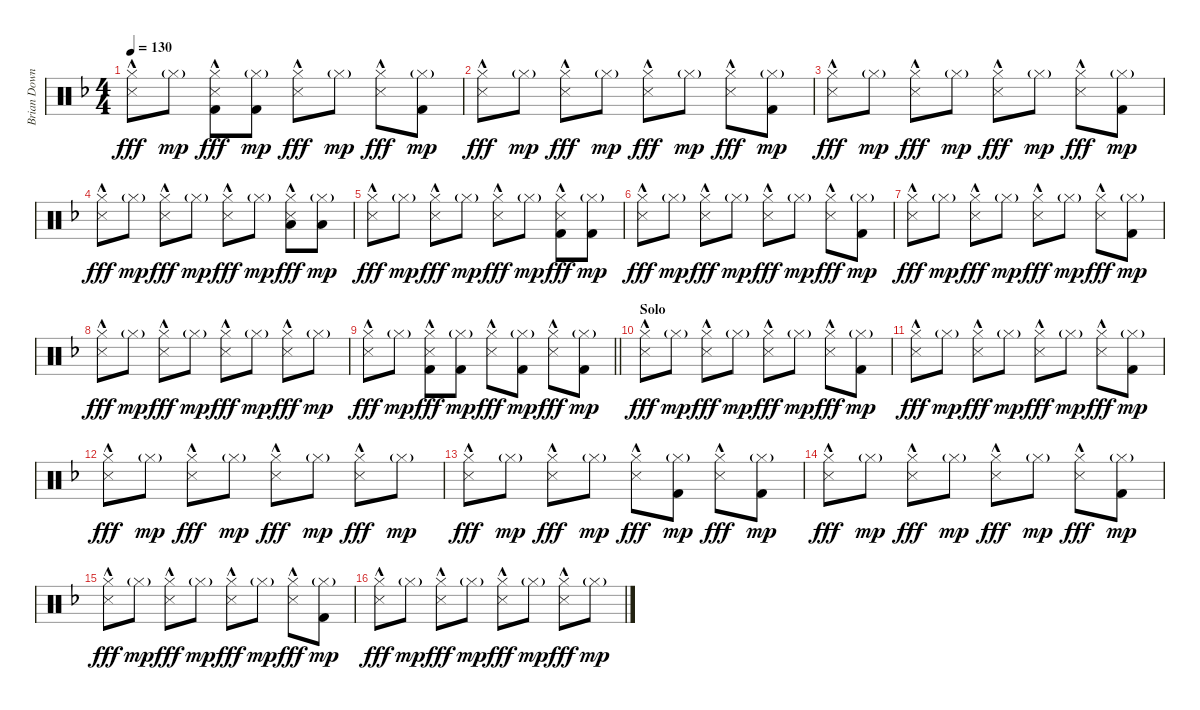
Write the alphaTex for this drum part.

\track ("Brian Downey" "Brian Down") {instrument percussion}
\staff {score}
\articulation defaults
\ts (4 4)
\tempo 130
\clef neutral
\ks dminor
("Hi-Hat (closed)" "Metronome (hit)"{hac}).8{dy fff} "Hi-Hat (closed)"{g}.8{dy mp} ("Hi-Hat (closed)" "Metronome (hit)"{hac} "Kick (hit) 2").8{dy fff} ("Hi-Hat (closed)"{g} "Kick (hit) 2").8{dy mp} ("Hi-Hat (closed)" "Metronome (hit)"{hac}).8{dy fff} "Hi-Hat (closed)"{g}.8{dy mp} ("Hi-Hat (closed)" "Metronome (hit)"{hac}).8{dy fff} ("Hi-Hat (closed)"{g} "Kick (hit) 2").8{dy mp} |
("Hi-Hat (closed)" "Metronome (hit)"{hac}).8{dy fff} "Hi-Hat (closed)"{g}.8{dy mp} ("Hi-Hat (closed)" "Metronome (hit)"{hac}).8{dy fff} "Hi-Hat (closed)"{g}.8{dy mp} ("Hi-Hat (closed)" "Metronome (hit)"{hac}).8{dy fff} "Hi-Hat (closed)"{g}.8{dy mp} ("Hi-Hat (closed)" "Metronome (hit)"{hac}).8{dy fff} ("Hi-Hat (closed)"{g} "Kick (hit) 2").8{dy mp} |
("Hi-Hat (closed)" "Metronome (hit)"{hac}).8{dy fff} "Hi-Hat (closed)"{g}.8{dy mp} ("Hi-Hat (closed)" "Metronome (hit)"{hac}).8{dy fff} "Hi-Hat (closed)"{g}.8{dy mp} ("Hi-Hat (closed)" "Metronome (hit)"{hac}).8{dy fff} "Hi-Hat (closed)"{g}.8{dy mp} ("Hi-Hat (closed)" "Metronome (hit)"{hac}).8{dy fff} ("Hi-Hat (closed)"{g} "Kick (hit) 2").8{dy mp} |
("Hi-Hat (closed)" "Metronome (hit)"{hac}).8{dy fff} "Hi-Hat (closed)"{g}.8{dy mp} ("Hi-Hat (closed)" "Metronome (hit)"{hac}).8{dy fff} "Hi-Hat (closed)"{g}.8{dy mp} ("Hi-Hat (closed)" "Metronome (hit)"{hac}).8{dy fff} "Hi-Hat (closed)"{g}.8{dy mp} ("Hi-Hat (closed)" "Low Tom (hit)" "Metronome (hit)"{hac}).8{dy fff} ("Hi-Hat (closed)"{g} "Low Tom (hit)").8{dy mp} |
("Hi-Hat (closed)" "Metronome (hit)"{hac}).8{dy fff} "Hi-Hat (closed)"{g}.8{dy mp} ("Hi-Hat (closed)" "Metronome (hit)"{hac}).8{dy fff} "Hi-Hat (closed)"{g}.8{dy mp} ("Hi-Hat (closed)" "Metronome (hit)"{hac}).8{dy fff} "Hi-Hat (closed)"{g}.8{dy mp} ("Hi-Hat (closed)" "Metronome (hit)"{hac} "Kick (hit) 2").8{dy fff} ("Hi-Hat (closed)"{g} "Kick (hit) 2").8{dy mp} |
("Hi-Hat (closed)" "Metronome (hit)"{hac}).8{dy fff} "Hi-Hat (closed)"{g}.8{dy mp} ("Hi-Hat (closed)" "Metronome (hit)"{hac}).8{dy fff} "Hi-Hat (closed)"{g}.8{dy mp} ("Hi-Hat (closed)" "Metronome (hit)"{hac}).8{dy fff} "Hi-Hat (closed)"{g}.8{dy mp} ("Hi-Hat (closed)" "Metronome (hit)"{hac}).8{dy fff} ("Hi-Hat (closed)"{g} "Kick (hit) 2").8{dy mp} |
("Hi-Hat (closed)" "Metronome (hit)"{hac}).8{dy fff} "Hi-Hat (closed)"{g}.8{dy mp} ("Hi-Hat (closed)" "Metronome (hit)"{hac}).8{dy fff} "Hi-Hat (closed)"{g}.8{dy mp} ("Hi-Hat (closed)" "Metronome (hit)"{hac}).8{dy fff} "Hi-Hat (closed)"{g}.8{dy mp} ("Hi-Hat (closed)" "Metronome (hit)"{hac}).8{dy fff} ("Hi-Hat (closed)"{g} "Kick (hit) 2").8{dy mp} |
("Hi-Hat (closed)" "Metronome (hit)"{hac}).8{dy fff} "Hi-Hat (closed)"{g}.8{dy mp} ("Hi-Hat (closed)" "Metronome (hit)"{hac}).8{dy fff} "Hi-Hat (closed)"{g}.8{dy mp} ("Hi-Hat (closed)" "Metronome (hit)"{hac}).8{dy fff} "Hi-Hat (closed)"{g}.8{dy mp} ("Hi-Hat (closed)" "Metronome (hit)"{hac}).8{dy fff} "Hi-Hat (closed)"{g}.8{dy mp} |
\barLineRight lightlight
("Hi-Hat (closed)" "Metronome (hit)"{hac}).8{dy fff} "Hi-Hat (closed)"{g}.8{dy mp} ("Hi-Hat (closed)" "Metronome (hit)"{hac} "Kick (hit) 2").8{dy fff} ("Hi-Hat (closed)"{g} "Kick (hit) 2").8{dy mp} ("Hi-Hat (closed)" "Metronome (hit)"{hac}).8{dy fff} ("Hi-Hat (closed)"{g} "Kick (hit) 2").8{dy mp} ("Hi-Hat (closed)" "Metronome (hit)"{hac}).8{dy fff} ("Hi-Hat (closed)"{g} "Kick (hit) 2").8{dy mp} |
\section ("" "Solo")
("Hi-Hat (closed)" "Metronome (hit)"{hac}).8{dy fff} "Hi-Hat (closed)"{g}.8{dy mp} ("Hi-Hat (closed)" "Metronome (hit)"{hac}).8{dy fff} "Hi-Hat (closed)"{g}.8{dy mp} ("Hi-Hat (closed)" "Metronome (hit)"{hac}).8{dy fff} "Hi-Hat (closed)"{g}.8{dy mp} ("Hi-Hat (closed)" "Metronome (hit)"{hac}).8{dy fff} ("Hi-Hat (closed)"{g} "Kick (hit) 2").8{dy mp} |
("Hi-Hat (closed)" "Metronome (hit)"{hac}).8{dy fff} "Hi-Hat (closed)"{g}.8{dy mp} ("Hi-Hat (closed)" "Metronome (hit)"{hac}).8{dy fff} "Hi-Hat (closed)"{g}.8{dy mp} ("Hi-Hat (closed)" "Metronome (hit)"{hac}).8{dy fff} "Hi-Hat (closed)"{g}.8{dy mp} ("Hi-Hat (closed)" "Metronome (hit)"{hac}).8{dy fff} ("Hi-Hat (closed)"{g} "Kick (hit) 2").8{dy mp} |
("Hi-Hat (closed)" "Metronome (hit)"{hac}).8{dy fff} "Hi-Hat (closed)"{g}.8{dy mp} ("Hi-Hat (closed)" "Metronome (hit)"{hac}).8{dy fff} "Hi-Hat (closed)"{g}.8{dy mp} ("Hi-Hat (closed)" "Metronome (hit)"{hac}).8{dy fff} "Hi-Hat (closed)"{g}.8{dy mp} ("Hi-Hat (closed)" "Metronome (hit)"{hac}).8{dy fff} "Hi-Hat (closed)"{g}.8{dy mp} |
("Hi-Hat (closed)" "Metronome (hit)"{hac}).8{dy fff} "Hi-Hat (closed)"{g}.8{dy mp} ("Hi-Hat (closed)" "Metronome (hit)"{hac}).8{dy fff} "Hi-Hat (closed)"{g}.8{dy mp} ("Hi-Hat (closed)" "Metronome (hit)"{hac}).8{dy fff} ("Hi-Hat (closed)"{g} "Kick (hit) 2").8{dy mp} ("Hi-Hat (closed)" "Metronome (hit)"{hac}).8{dy fff} ("Hi-Hat (closed)"{g} "Kick (hit) 2").8{dy mp} |
("Hi-Hat (closed)" "Metronome (hit)"{hac}).8{dy fff} "Hi-Hat (closed)"{g}.8{dy mp} ("Hi-Hat (closed)" "Metronome (hit)"{hac}).8{dy fff} "Hi-Hat (closed)"{g}.8{dy mp} ("Hi-Hat (closed)" "Metronome (hit)"{hac}).8{dy fff} "Hi-Hat (closed)"{g}.8{dy mp} ("Hi-Hat (closed)" "Metronome (hit)"{hac}).8{dy fff} ("Hi-Hat (closed)"{g} "Kick (hit) 2").8{dy mp} |
("Hi-Hat (closed)" "Metronome (hit)"{hac}).8{dy fff} "Hi-Hat (closed)"{g}.8{dy mp} ("Hi-Hat (closed)" "Metronome (hit)"{hac}).8{dy fff} "Hi-Hat (closed)"{g}.8{dy mp} ("Hi-Hat (closed)" "Metronome (hit)"{hac}).8{dy fff} "Hi-Hat (closed)"{g}.8{dy mp} ("Hi-Hat (closed)" "Metronome (hit)"{hac}).8{dy fff} ("Hi-Hat (closed)"{g} "Kick (hit) 2").8{dy mp} |
("Hi-Hat (closed)" "Metronome (hit)"{hac}).8{dy fff} "Hi-Hat (closed)"{g}.8{dy mp} ("Hi-Hat (closed)" "Metronome (hit)"{hac}).8{dy fff} "Hi-Hat (closed)"{g}.8{dy mp} ("Hi-Hat (closed)" "Metronome (hit)"{hac}).8{dy fff} "Hi-Hat (closed)"{g}.8{dy mp} ("Hi-Hat (closed)" "Metronome (hit)"{hac}).8{dy fff} "Hi-Hat (closed)"{g}.8{dy mp}
